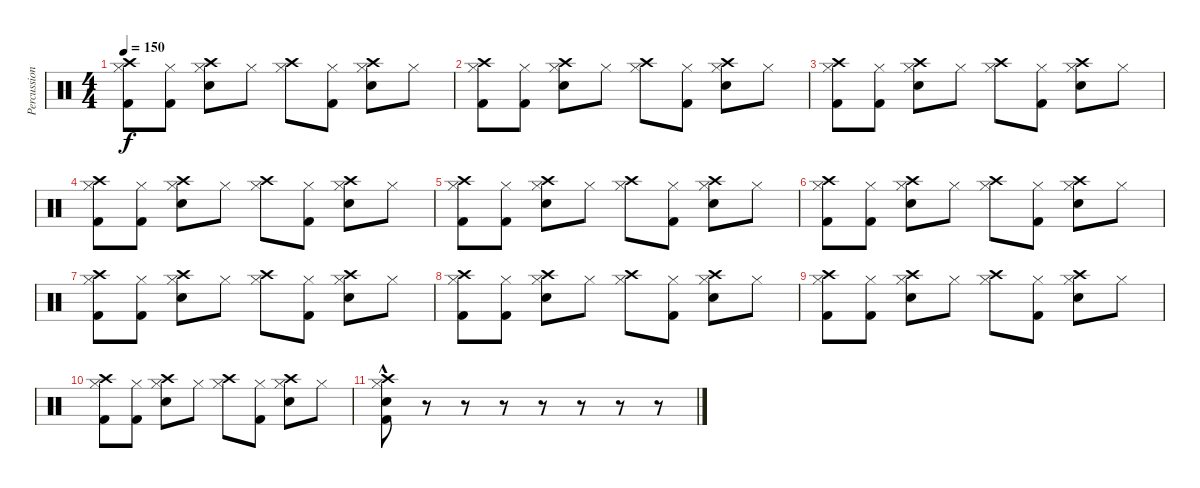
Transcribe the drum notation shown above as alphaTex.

\track ("Percussion" "Percussion") {instrument percussion}
\staff {score}
\articulation defaults
\ts (4 4)
\tempo 150
\clef neutral
\ks c
("Hi-Hat (closed)" "Kick (hit) 2" "Crash high (hit)").8{dy f} ("Hi-Hat (closed)" "Kick (hit) 2").8 ("Hi-Hat (closed)" "Electric Snare (hit)" "Crash high (hit)").8 "Hi-Hat (closed)".8 ("Hi-Hat (closed)" "Crash high (hit)").8 ("Hi-Hat (closed)" "Kick (hit) 2").8 ("Hi-Hat (closed)" "Electric Snare (hit)" "Crash high (hit)").8 "Hi-Hat (closed)".8 |
("Hi-Hat (closed)" "Kick (hit) 2" "Crash high (hit)").8 ("Hi-Hat (closed)" "Kick (hit) 2").8 ("Hi-Hat (closed)" "Electric Snare (hit)" "Crash high (hit)").8 "Hi-Hat (closed)".8 ("Hi-Hat (closed)" "Crash high (hit)").8 ("Hi-Hat (closed)" "Kick (hit) 2").8 ("Hi-Hat (closed)" "Electric Snare (hit)" "Crash high (hit)").8 "Hi-Hat (closed)".8 |
("Hi-Hat (closed)" "Kick (hit) 2" "Crash high (hit)").8 ("Hi-Hat (closed)" "Kick (hit) 2").8 ("Hi-Hat (closed)" "Electric Snare (hit)" "Crash high (hit)").8 "Hi-Hat (closed)".8 ("Hi-Hat (closed)" "Crash high (hit)").8 ("Hi-Hat (closed)" "Kick (hit) 2").8 ("Hi-Hat (closed)" "Electric Snare (hit)" "Crash high (hit)").8 "Hi-Hat (closed)".8 |
("Hi-Hat (closed)" "Kick (hit) 2" "Crash high (hit)").8 ("Hi-Hat (closed)" "Kick (hit) 2").8 ("Hi-Hat (closed)" "Electric Snare (hit)" "Crash high (hit)").8 "Hi-Hat (closed)".8 ("Hi-Hat (closed)" "Crash high (hit)").8 ("Hi-Hat (closed)" "Kick (hit) 2").8 ("Hi-Hat (closed)" "Electric Snare (hit)" "Crash high (hit)").8 "Hi-Hat (closed)".8 |
("Hi-Hat (closed)" "Kick (hit) 2" "Crash high (hit)").8 ("Hi-Hat (closed)" "Kick (hit) 2").8 ("Hi-Hat (closed)" "Electric Snare (hit)" "Crash high (hit)").8 "Hi-Hat (closed)".8 ("Hi-Hat (closed)" "Crash high (hit)").8 ("Hi-Hat (closed)" "Kick (hit) 2").8 ("Hi-Hat (closed)" "Electric Snare (hit)" "Crash high (hit)").8 "Hi-Hat (closed)".8 |
("Hi-Hat (closed)" "Kick (hit) 2" "Crash high (hit)").8 ("Hi-Hat (closed)" "Kick (hit) 2").8 ("Hi-Hat (closed)" "Electric Snare (hit)" "Crash high (hit)").8 "Hi-Hat (closed)".8 ("Hi-Hat (closed)" "Crash high (hit)").8 ("Hi-Hat (closed)" "Kick (hit) 2").8 ("Hi-Hat (closed)" "Electric Snare (hit)" "Crash high (hit)").8 "Hi-Hat (closed)".8 |
("Hi-Hat (closed)" "Kick (hit) 2" "Crash high (hit)").8 ("Hi-Hat (closed)" "Kick (hit) 2").8 ("Hi-Hat (closed)" "Electric Snare (hit)" "Crash high (hit)").8 "Hi-Hat (closed)".8 ("Hi-Hat (closed)" "Crash high (hit)").8 ("Hi-Hat (closed)" "Kick (hit) 2").8 ("Hi-Hat (closed)" "Electric Snare (hit)" "Crash high (hit)").8 "Hi-Hat (closed)".8 |
("Hi-Hat (closed)" "Kick (hit) 2" "Crash high (hit)").8 ("Hi-Hat (closed)" "Kick (hit) 2").8 ("Hi-Hat (closed)" "Electric Snare (hit)" "Crash high (hit)").8 "Hi-Hat (closed)".8 ("Hi-Hat (closed)" "Crash high (hit)").8 ("Hi-Hat (closed)" "Kick (hit) 2").8 ("Hi-Hat (closed)" "Electric Snare (hit)" "Crash high (hit)").8 "Hi-Hat (closed)".8 |
("Hi-Hat (closed)" "Kick (hit) 2" "Crash high (hit)").8 ("Hi-Hat (closed)" "Kick (hit) 2").8 ("Hi-Hat (closed)" "Electric Snare (hit)" "Crash high (hit)").8 "Hi-Hat (closed)".8 ("Hi-Hat (closed)" "Crash high (hit)").8 ("Hi-Hat (closed)" "Kick (hit) 2").8 ("Hi-Hat (closed)" "Electric Snare (hit)" "Crash high (hit)").8 "Hi-Hat (closed)".8 |
("Hi-Hat (closed)" "Kick (hit) 2" "Crash high (hit)").8 ("Hi-Hat (closed)" "Kick (hit) 2").8 ("Hi-Hat (closed)" "Electric Snare (hit)" "Crash high (hit)").8 "Hi-Hat (closed)".8 ("Hi-Hat (closed)" "Crash high (hit)").8 ("Hi-Hat (closed)" "Kick (hit) 2").8 ("Hi-Hat (closed)" "Electric Snare (hit)" "Crash high (hit)").8 "Hi-Hat (closed)".8 |
("Hi-Hat (closed)" "Electric Snare (hit)"{hac} "Kick (hit) 2" "Crash high (hit)").8 r.8 r.8 r.8 r.8 r.8 r.8 r.8
